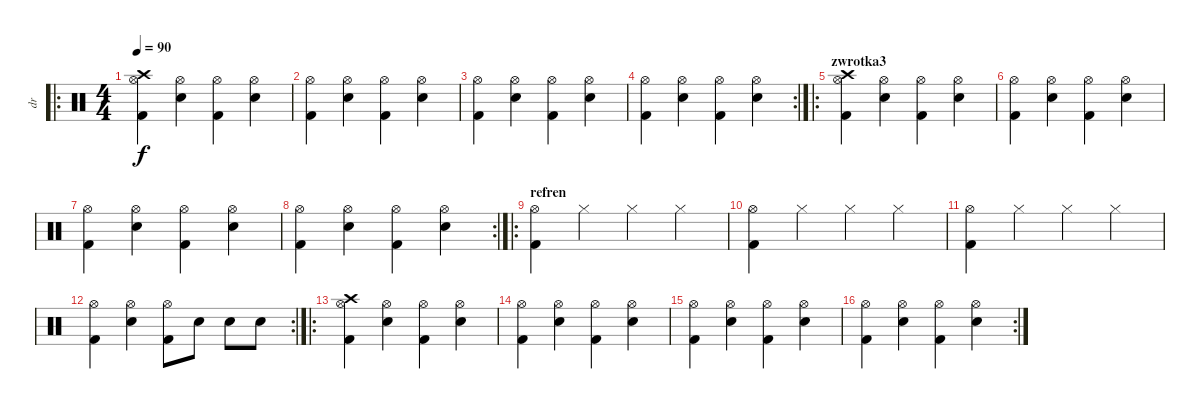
\track ("dr" "dr") {instrument percussion}
\staff {score}
\articulation defaults
\ro
\ts (4 4)
\tempo 90
\clef neutral
\ks c
("Hi-Hat (open)" "Kick (hit) 2" "Crash high (hit)").4{dy f} ("Hi-Hat (open)" "Electric Snare (hit)").4 ("Hi-Hat (open)" "Kick (hit) 2").4 ("Hi-Hat (open)" "Electric Snare (hit)").4 |
("Hi-Hat (open)" "Kick (hit) 2").4 ("Hi-Hat (open)" "Electric Snare (hit)").4 ("Hi-Hat (open)" "Kick (hit) 2").4 ("Hi-Hat (open)" "Electric Snare (hit)").4 |
("Hi-Hat (open)" "Kick (hit) 2").4 ("Hi-Hat (open)" "Electric Snare (hit)").4 ("Hi-Hat (open)" "Kick (hit) 2").4 ("Hi-Hat (open)" "Electric Snare (hit)").4 |
\rc 2
("Hi-Hat (open)" "Kick (hit) 2").4 ("Hi-Hat (open)" "Electric Snare (hit)").4 ("Hi-Hat (open)" "Kick (hit) 2").4 ("Hi-Hat (open)" "Electric Snare (hit)").4 |
\ro
\section ("" "zwrotka3")
("Hi-Hat (open)" "Kick (hit) 2" "Crash high (hit)").4 ("Hi-Hat (open)" "Electric Snare (hit)").4 ("Hi-Hat (open)" "Kick (hit) 2").4 ("Hi-Hat (open)" "Electric Snare (hit)").4 |
("Hi-Hat (open)" "Kick (hit) 2").4 ("Hi-Hat (open)" "Electric Snare (hit)").4 ("Hi-Hat (open)" "Kick (hit) 2").4 ("Hi-Hat (open)" "Electric Snare (hit)").4 |
("Hi-Hat (open)" "Kick (hit) 2").4 ("Hi-Hat (open)" "Electric Snare (hit)").4 ("Hi-Hat (open)" "Kick (hit) 2").4 ("Hi-Hat (open)" "Electric Snare (hit)").4 |
\rc 2
("Hi-Hat (open)" "Kick (hit) 2").4 ("Hi-Hat (open)" "Electric Snare (hit)").4 ("Hi-Hat (open)" "Kick (hit) 2").4 ("Hi-Hat (open)" "Electric Snare (hit)").4 |
\ro
\section ("" "refren")
("Hi-Hat (open)" "Kick (hit) 2").4 "Hi-Hat (closed)".4 "Hi-Hat (closed)".4 "Hi-Hat (closed)".4 |
("Hi-Hat (open)" "Kick (hit) 2").4 "Hi-Hat (closed)".4 "Hi-Hat (closed)".4 "Hi-Hat (closed)".4 |
("Hi-Hat (open)" "Kick (hit) 2").4 "Hi-Hat (closed)".4 "Hi-Hat (closed)".4 "Hi-Hat (closed)".4 |
\rc 2
("Hi-Hat (open)" "Kick (hit) 2").4 ("Hi-Hat (open)" "Electric Snare (hit)").4 ("Hi-Hat (open)" "Kick (hit) 2").8 "Electric Snare (hit)".8 "Electric Snare (hit)".8 "Electric Snare (hit)".8 |
\ro
("Hi-Hat (open)" "Kick (hit) 2" "Crash high (hit)").4 ("Hi-Hat (open)" "Electric Snare (hit)").4 ("Hi-Hat (open)" "Kick (hit) 2").4 ("Hi-Hat (open)" "Electric Snare (hit)").4 |
("Hi-Hat (open)" "Kick (hit) 2").4 ("Hi-Hat (open)" "Electric Snare (hit)").4 ("Hi-Hat (open)" "Kick (hit) 2").4 ("Hi-Hat (open)" "Electric Snare (hit)").4 |
("Hi-Hat (open)" "Kick (hit) 2").4 ("Hi-Hat (open)" "Electric Snare (hit)").4 ("Hi-Hat (open)" "Kick (hit) 2").4 ("Hi-Hat (open)" "Electric Snare (hit)").4 |
\rc 2
("Hi-Hat (open)" "Kick (hit) 2").4 ("Hi-Hat (open)" "Electric Snare (hit)").4 ("Hi-Hat (open)" "Kick (hit) 2").4 ("Hi-Hat (open)" "Electric Snare (hit)").4
